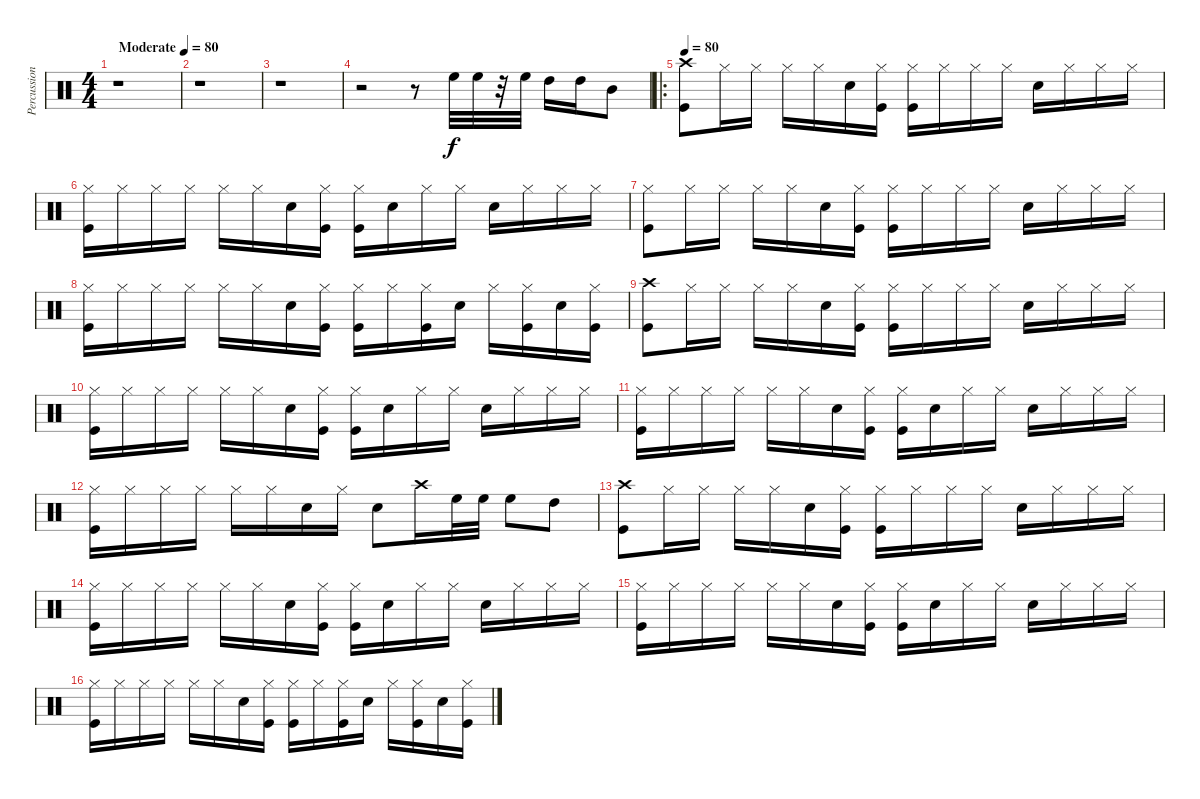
\track ("Percussion" "Percussion") {instrument percussion}
\staff {score}
\articulation defaults
\ts (4 4)
\tempo (80 "Moderate")
\clef neutral
\ks c
r.1{dy f} |
r.1 |
r.1 |
r.2 r.8 "High Floor Tom (hit)".32 "High Floor Tom (hit)".32 r.32 "High Floor Tom (hit)".32 "High Tom (hit)".16 "High Tom (hit)".16 "Mid Tom (hit)".8 |
\ro
\tempo 80
("Crash high (hit)" "Kick (hit)").8 "Hi-Hat (closed)".16 "Hi-Hat (closed)".16 "Hi-Hat (closed)".16 "Hi-Hat (closed)".16 "Snare (hit) 2".16 ("Hi-Hat (closed)" "Kick (hit)").16 ("Hi-Hat (closed)" "Kick (hit)").16 "Hi-Hat (closed)".16 "Hi-Hat (closed)".16 "Hi-Hat (closed)".16 "Snare (hit) 2".16 "Hi-Hat (closed)".16 "Hi-Hat (closed)".16 "Hi-Hat (closed)".16 |
("Hi-Hat (closed)" "Kick (hit)").16 "Hi-Hat (closed)".16 "Hi-Hat (closed)".16 "Hi-Hat (closed)".16 "Hi-Hat (closed)".16 "Hi-Hat (closed)".16 "Snare (hit) 2".16 ("Hi-Hat (closed)" "Kick (hit)").16 ("Hi-Hat (closed)" "Kick (hit)").16 "Snare (hit) 2".16 "Hi-Hat (closed)".16 "Hi-Hat (closed)".16 "Snare (hit) 2".16 "Hi-Hat (closed)".16 "Hi-Hat (closed)".16 "Hi-Hat (closed)".16 |
("Hi-Hat (closed)" "Kick (hit)").8 "Hi-Hat (closed)".16 "Hi-Hat (closed)".16 "Hi-Hat (closed)".16 "Hi-Hat (closed)".16 "Snare (hit) 2".16 ("Hi-Hat (closed)" "Kick (hit)").16 ("Hi-Hat (closed)" "Kick (hit)").16 "Hi-Hat (closed)".16 "Hi-Hat (closed)".16 "Hi-Hat (closed)".16 "Snare (hit) 2".16 "Hi-Hat (closed)".16 "Hi-Hat (closed)".16 "Hi-Hat (closed)".16 |
("Hi-Hat (closed)" "Kick (hit)").16 "Hi-Hat (closed)".16 "Hi-Hat (closed)".16 "Hi-Hat (closed)".16 "Hi-Hat (closed)".16 "Hi-Hat (closed)".16 "Snare (hit) 2".16 ("Hi-Hat (closed)" "Kick (hit)").16 ("Hi-Hat (closed)" "Kick (hit)").16 "Hi-Hat (closed)".16 ("Hi-Hat (closed)" "Kick (hit)").16 "Snare (hit) 2".16 "Hi-Hat (closed)".16 ("Hi-Hat (closed)" "Kick (hit)").16 "Snare (hit) 2".16 ("Hi-Hat (closed)" "Kick (hit)").16 |
("Crash high (hit)" "Kick (hit)").8 "Hi-Hat (closed)".16 "Hi-Hat (closed)".16 "Hi-Hat (closed)".16 "Hi-Hat (closed)".16 "Snare (hit) 2".16 ("Hi-Hat (closed)" "Kick (hit)").16 ("Hi-Hat (closed)" "Kick (hit)").16 "Hi-Hat (closed)".16 "Hi-Hat (closed)".16 "Hi-Hat (closed)".16 "Snare (hit) 2".16 "Hi-Hat (closed)".16 "Hi-Hat (closed)".16 "Hi-Hat (closed)".16 |
("Hi-Hat (closed)" "Kick (hit)").16 "Hi-Hat (closed)".16 "Hi-Hat (closed)".16 "Hi-Hat (closed)".16 "Hi-Hat (closed)".16 "Hi-Hat (closed)".16 "Snare (hit) 2".16 ("Hi-Hat (closed)" "Kick (hit)").16 ("Hi-Hat (closed)" "Kick (hit)").16 "Snare (hit) 2".16 "Hi-Hat (closed)".16 "Hi-Hat (closed)".16 "Snare (hit) 2".16 "Hi-Hat (closed)".16 "Hi-Hat (closed)".16 "Hi-Hat (closed)".16 |
("Hi-Hat (closed)" "Kick (hit)").16 "Hi-Hat (closed)".16 "Hi-Hat (closed)".16 "Hi-Hat (closed)".16 "Hi-Hat (closed)".16 "Hi-Hat (closed)".16 "Snare (hit) 2".16 ("Hi-Hat (closed)" "Kick (hit)").16 ("Hi-Hat (closed)" "Kick (hit)").16 "Snare (hit) 2".16 "Hi-Hat (closed)".16 "Hi-Hat (closed)".16 "Snare (hit) 2".16 "Hi-Hat (closed)".16 "Hi-Hat (closed)".16 "Hi-Hat (closed)".16 |
("Hi-Hat (closed)" "Kick (hit)").16 "Hi-Hat (closed)".16 "Hi-Hat (closed)".16 "Hi-Hat (closed)".16 "Hi-Hat (closed)".16 "Hi-Hat (closed)".16 "Snare (hit) 2".16 "Hi-Hat (closed)".16 "Snare (hit) 2".8 "Crash high (hit)".16 "High Floor Tom (hit)".32 "High Floor Tom (hit)".32 "High Floor Tom (hit)".8 "High Tom (hit)".8 |
("Crash high (hit)" "Kick (hit)").8 "Hi-Hat (closed)".16 "Hi-Hat (closed)".16 "Hi-Hat (closed)".16 "Hi-Hat (closed)".16 "Snare (hit) 2".16 ("Hi-Hat (closed)" "Kick (hit)").16 ("Hi-Hat (closed)" "Kick (hit)").16 "Hi-Hat (closed)".16 "Hi-Hat (closed)".16 "Hi-Hat (closed)".16 "Snare (hit) 2".16 "Hi-Hat (closed)".16 "Hi-Hat (closed)".16 "Hi-Hat (closed)".16 |
("Hi-Hat (closed)" "Kick (hit)").16 "Hi-Hat (closed)".16 "Hi-Hat (closed)".16 "Hi-Hat (closed)".16 "Hi-Hat (closed)".16 "Hi-Hat (closed)".16 "Snare (hit) 2".16 ("Hi-Hat (closed)" "Kick (hit)").16 ("Hi-Hat (closed)" "Kick (hit)").16 "Snare (hit) 2".16 "Hi-Hat (closed)".16 "Hi-Hat (closed)".16 "Snare (hit) 2".16 "Hi-Hat (closed)".16 "Hi-Hat (closed)".16 "Hi-Hat (closed)".16 |
("Hi-Hat (closed)" "Kick (hit)").16 "Hi-Hat (closed)".16 "Hi-Hat (closed)".16 "Hi-Hat (closed)".16 "Hi-Hat (closed)".16 "Hi-Hat (closed)".16 "Snare (hit) 2".16 ("Hi-Hat (closed)" "Kick (hit)").16 ("Hi-Hat (closed)" "Kick (hit)").16 "Snare (hit) 2".16 "Hi-Hat (closed)".16 "Hi-Hat (closed)".16 "Snare (hit) 2".16 "Hi-Hat (closed)".16 "Hi-Hat (closed)".16 "Hi-Hat (closed)".16 |
("Hi-Hat (closed)" "Kick (hit)").16 "Hi-Hat (closed)".16 "Hi-Hat (closed)".16 "Hi-Hat (closed)".16 "Hi-Hat (closed)".16 "Hi-Hat (closed)".16 "Snare (hit) 2".16 ("Hi-Hat (closed)" "Kick (hit)").16 ("Hi-Hat (closed)" "Kick (hit)").16 "Hi-Hat (closed)".16 ("Hi-Hat (closed)" "Kick (hit)").16 "Snare (hit) 2".16 "Hi-Hat (closed)".16 ("Hi-Hat (closed)" "Kick (hit)").16 "Snare (hit) 2".16 ("Hi-Hat (closed)" "Kick (hit)").16
